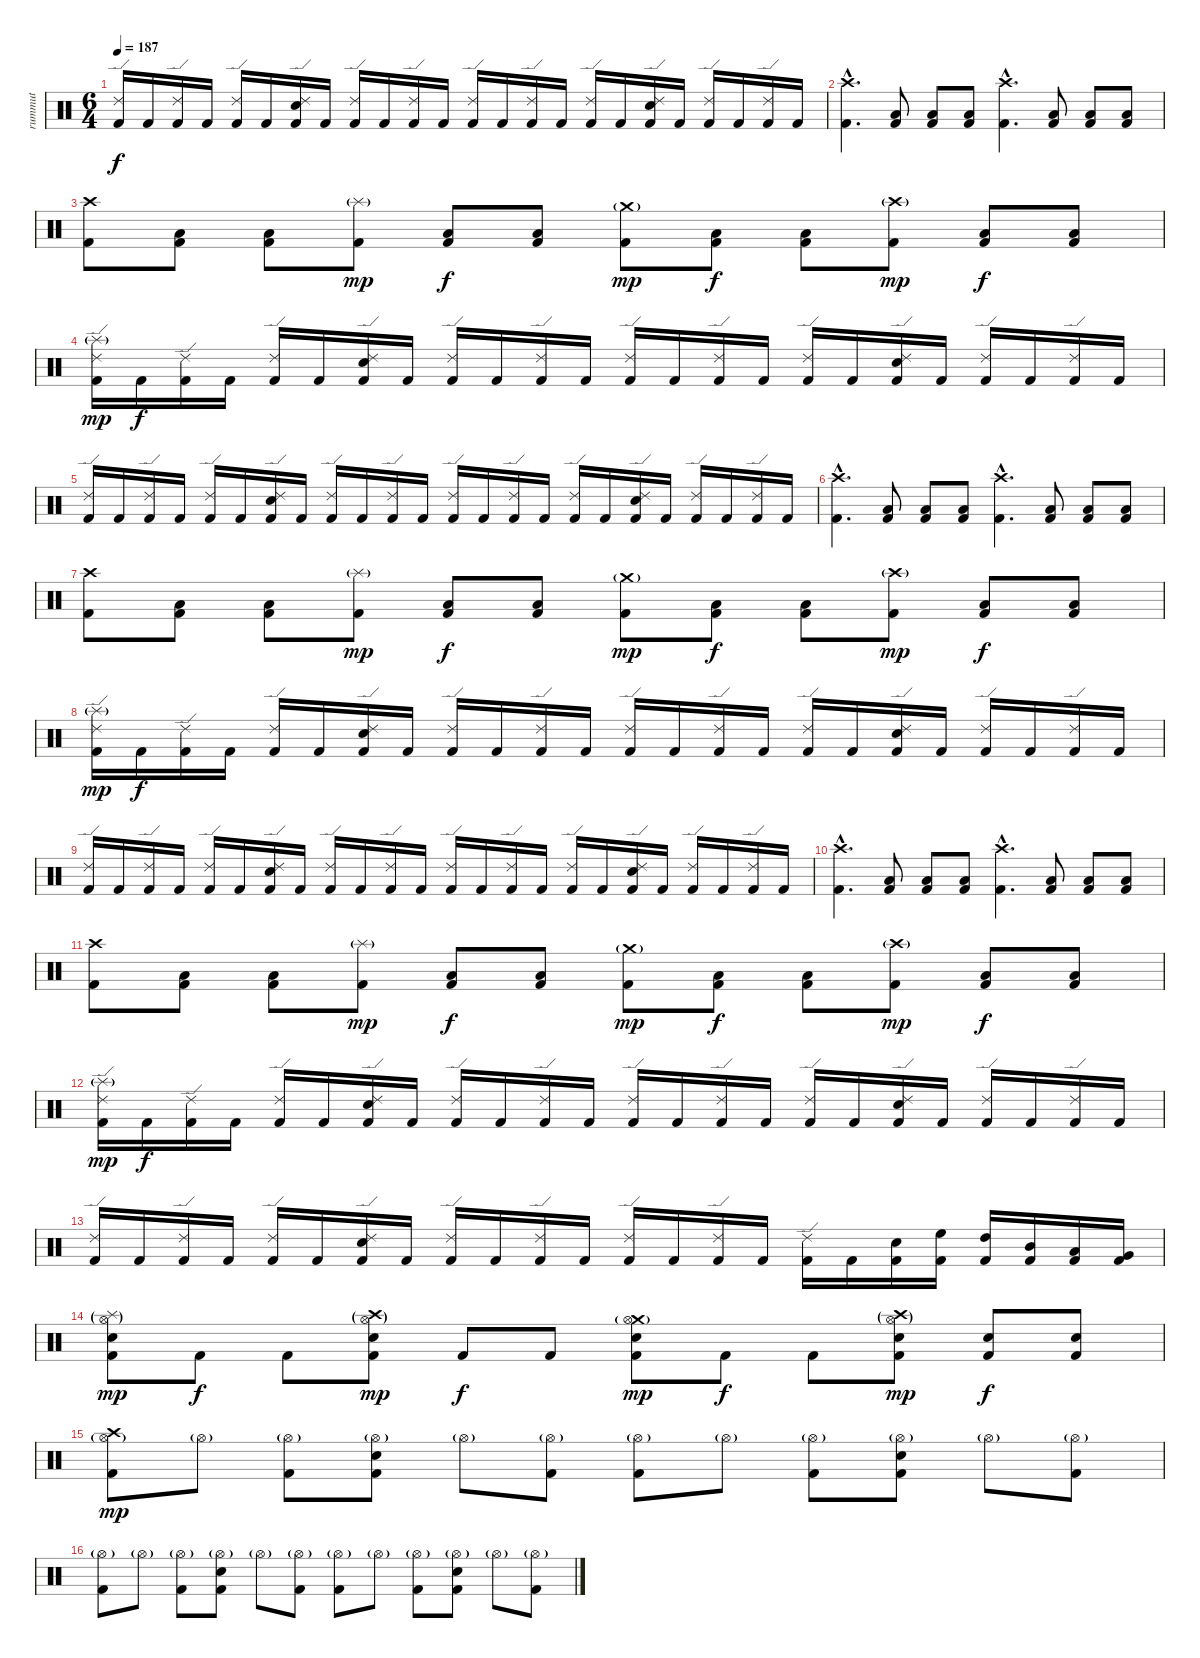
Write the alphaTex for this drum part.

\track ("rummut" "rummut") {instrument percussion}
\staff {score}
\articulation defaults
\ts (6 4)
\tempo 187
\clef neutral
\ks c
("Kick (hit) 2" "Ride (edge) 2").16{dy f} "Kick (hit) 2".16 ("Kick (hit) 2" "Ride (edge) 2").16 "Kick (hit) 2".16 ("Kick (hit) 2" "Ride (edge) 2").16 "Kick (hit) 2".16 ("Kick (hit) 2" "Ride (edge) 2" "Snare (hit) 2").16 "Kick (hit) 2".16 ("Kick (hit) 2" "Ride (edge) 2").16 "Kick (hit) 2".16 ("Kick (hit) 2" "Ride (edge) 2").16 "Kick (hit) 2".16 ("Kick (hit) 2" "Ride (edge) 2").16 "Kick (hit) 2".16 ("Kick (hit) 2" "Ride (edge) 2").16 "Kick (hit) 2".16 ("Kick (hit) 2" "Ride (edge) 2").16 "Kick (hit) 2".16 ("Kick (hit) 2" "Ride (edge) 2" "Snare (hit) 2").16 "Kick (hit) 2".16 ("Kick (hit) 2" "Ride (edge) 2").16 "Kick (hit) 2".16 ("Kick (hit) 2" "Ride (edge) 2").16 "Kick (hit) 2".16 |
("Kick (hit) 2"{hac} "Crash high (hit)"{hac}).4{d} ("Kick (hit) 2" "Low Tom (hit)").8 ("Kick (hit) 2" "Low Tom (hit)").8 ("Kick (hit) 2" "Low Tom (hit)").8 ("Kick (hit) 2"{hac} "Crash high (hit)"{hac}).4{d} ("Kick (hit) 2" "Low Tom (hit)").8 ("Kick (hit) 2" "Low Tom (hit)").8 ("Kick (hit) 2" "Low Tom (hit)").8 |
("Kick (hit) 2" "Crash high (hit)").8 ("Kick (hit) 2" "Low Tom (hit)").8 ("Kick (hit) 2" "Low Tom (hit)").8 ("Kick (hit) 2" "Splash (hit)"{g}).8{dy mp} ("Kick (hit) 2" "Low Tom (hit)").8{dy f} ("Kick (hit) 2" "Low Tom (hit)").8 ("Kick (hit) 2" "Crash medium (hit)"{g}).8{dy mp} ("Kick (hit) 2" "Low Tom (hit)").8{dy f} ("Kick (hit) 2" "Low Tom (hit)").8 ("Kick (hit) 2" "Crash high (hit)"{g}).8{dy mp} ("Kick (hit) 2" "Low Tom (hit)").8{dy f} ("Kick (hit) 2" "Low Tom (hit)").8 |
("Kick (hit) 2" "Ride (edge) 2" "Splash (hit)"{g}).16{dy mp} "Kick (hit) 2".16{dy f} ("Kick (hit) 2" "Ride (edge) 2").16 "Kick (hit) 2".16 ("Kick (hit) 2" "Ride (edge) 2").16 "Kick (hit) 2".16 ("Kick (hit) 2" "Ride (edge) 2" "Snare (hit) 2").16 "Kick (hit) 2".16 ("Kick (hit) 2" "Ride (edge) 2").16 "Kick (hit) 2".16 ("Kick (hit) 2" "Ride (edge) 2").16 "Kick (hit) 2".16 ("Kick (hit) 2" "Ride (edge) 2").16 "Kick (hit) 2".16 ("Kick (hit) 2" "Ride (edge) 2").16 "Kick (hit) 2".16 ("Kick (hit) 2" "Ride (edge) 2").16 "Kick (hit) 2".16 ("Kick (hit) 2" "Ride (edge) 2" "Snare (hit) 2").16 "Kick (hit) 2".16 ("Kick (hit) 2" "Ride (edge) 2").16 "Kick (hit) 2".16 ("Kick (hit) 2" "Ride (edge) 2").16 "Kick (hit) 2".16 |
("Kick (hit) 2" "Ride (edge) 2").16 "Kick (hit) 2".16 ("Kick (hit) 2" "Ride (edge) 2").16 "Kick (hit) 2".16 ("Kick (hit) 2" "Ride (edge) 2").16 "Kick (hit) 2".16 ("Kick (hit) 2" "Ride (edge) 2" "Snare (hit) 2").16 "Kick (hit) 2".16 ("Kick (hit) 2" "Ride (edge) 2").16 "Kick (hit) 2".16 ("Kick (hit) 2" "Ride (edge) 2").16 "Kick (hit) 2".16 ("Kick (hit) 2" "Ride (edge) 2").16 "Kick (hit) 2".16 ("Kick (hit) 2" "Ride (edge) 2").16 "Kick (hit) 2".16 ("Kick (hit) 2" "Ride (edge) 2").16 "Kick (hit) 2".16 ("Kick (hit) 2" "Ride (edge) 2" "Snare (hit) 2").16 "Kick (hit) 2".16 ("Kick (hit) 2" "Ride (edge) 2").16 "Kick (hit) 2".16 ("Kick (hit) 2" "Ride (edge) 2").16 "Kick (hit) 2".16 |
("Kick (hit) 2"{hac} "Crash high (hit)"{hac}).4{d} ("Kick (hit) 2" "Low Tom (hit)").8 ("Kick (hit) 2" "Low Tom (hit)").8 ("Kick (hit) 2" "Low Tom (hit)").8 ("Kick (hit) 2"{hac} "Crash high (hit)"{hac}).4{d} ("Kick (hit) 2" "Low Tom (hit)").8 ("Kick (hit) 2" "Low Tom (hit)").8 ("Kick (hit) 2" "Low Tom (hit)").8 |
("Kick (hit) 2" "Crash high (hit)").8 ("Kick (hit) 2" "Low Tom (hit)").8 ("Kick (hit) 2" "Low Tom (hit)").8 ("Kick (hit) 2" "Splash (hit)"{g}).8{dy mp} ("Kick (hit) 2" "Low Tom (hit)").8{dy f} ("Kick (hit) 2" "Low Tom (hit)").8 ("Kick (hit) 2" "Crash medium (hit)"{g}).8{dy mp} ("Kick (hit) 2" "Low Tom (hit)").8{dy f} ("Kick (hit) 2" "Low Tom (hit)").8 ("Kick (hit) 2" "Crash high (hit)"{g}).8{dy mp} ("Kick (hit) 2" "Low Tom (hit)").8{dy f} ("Kick (hit) 2" "Low Tom (hit)").8 |
("Kick (hit) 2" "Ride (edge) 2" "Splash (hit)"{g}).16{dy mp} "Kick (hit) 2".16{dy f} ("Kick (hit) 2" "Ride (edge) 2").16 "Kick (hit) 2".16 ("Kick (hit) 2" "Ride (edge) 2").16 "Kick (hit) 2".16 ("Kick (hit) 2" "Ride (edge) 2" "Snare (hit) 2").16 "Kick (hit) 2".16 ("Kick (hit) 2" "Ride (edge) 2").16 "Kick (hit) 2".16 ("Kick (hit) 2" "Ride (edge) 2").16 "Kick (hit) 2".16 ("Kick (hit) 2" "Ride (edge) 2").16 "Kick (hit) 2".16 ("Kick (hit) 2" "Ride (edge) 2").16 "Kick (hit) 2".16 ("Kick (hit) 2" "Ride (edge) 2").16 "Kick (hit) 2".16 ("Kick (hit) 2" "Ride (edge) 2" "Snare (hit) 2").16 "Kick (hit) 2".16 ("Kick (hit) 2" "Ride (edge) 2").16 "Kick (hit) 2".16 ("Kick (hit) 2" "Ride (edge) 2").16 "Kick (hit) 2".16 |
("Kick (hit) 2" "Ride (edge) 2").16 "Kick (hit) 2".16 ("Kick (hit) 2" "Ride (edge) 2").16 "Kick (hit) 2".16 ("Kick (hit) 2" "Ride (edge) 2").16 "Kick (hit) 2".16 ("Kick (hit) 2" "Ride (edge) 2" "Snare (hit) 2").16 "Kick (hit) 2".16 ("Kick (hit) 2" "Ride (edge) 2").16 "Kick (hit) 2".16 ("Kick (hit) 2" "Ride (edge) 2").16 "Kick (hit) 2".16 ("Kick (hit) 2" "Ride (edge) 2").16 "Kick (hit) 2".16 ("Kick (hit) 2" "Ride (edge) 2").16 "Kick (hit) 2".16 ("Kick (hit) 2" "Ride (edge) 2").16 "Kick (hit) 2".16 ("Kick (hit) 2" "Ride (edge) 2" "Snare (hit) 2").16 "Kick (hit) 2".16 ("Kick (hit) 2" "Ride (edge) 2").16 "Kick (hit) 2".16 ("Kick (hit) 2" "Ride (edge) 2").16 "Kick (hit) 2".16 |
("Kick (hit) 2"{hac} "Crash high (hit)"{hac}).4{d} ("Kick (hit) 2" "Low Tom (hit)").8 ("Kick (hit) 2" "Low Tom (hit)").8 ("Kick (hit) 2" "Low Tom (hit)").8 ("Kick (hit) 2"{hac} "Crash high (hit)"{hac}).4{d} ("Kick (hit) 2" "Low Tom (hit)").8 ("Kick (hit) 2" "Low Tom (hit)").8 ("Kick (hit) 2" "Low Tom (hit)").8 |
("Kick (hit) 2" "Crash high (hit)").8 ("Kick (hit) 2" "Low Tom (hit)").8 ("Kick (hit) 2" "Low Tom (hit)").8 ("Kick (hit) 2" "Splash (hit)"{g}).8{dy mp} ("Kick (hit) 2" "Low Tom (hit)").8{dy f} ("Kick (hit) 2" "Low Tom (hit)").8 ("Kick (hit) 2" "Crash medium (hit)"{g}).8{dy mp} ("Kick (hit) 2" "Low Tom (hit)").8{dy f} ("Kick (hit) 2" "Low Tom (hit)").8 ("Kick (hit) 2" "Crash high (hit)"{g}).8{dy mp} ("Kick (hit) 2" "Low Tom (hit)").8{dy f} ("Kick (hit) 2" "Low Tom (hit)").8 |
("Kick (hit) 2" "Ride (edge) 2" "Splash (hit)"{g}).16{dy mp} "Kick (hit) 2".16{dy f} ("Kick (hit) 2" "Ride (edge) 2").16 "Kick (hit) 2".16 ("Kick (hit) 2" "Ride (edge) 2").16 "Kick (hit) 2".16 ("Kick (hit) 2" "Ride (edge) 2" "Snare (hit) 2").16 "Kick (hit) 2".16 ("Kick (hit) 2" "Ride (edge) 2").16 "Kick (hit) 2".16 ("Kick (hit) 2" "Ride (edge) 2").16 "Kick (hit) 2".16 ("Kick (hit) 2" "Ride (edge) 2").16 "Kick (hit) 2".16 ("Kick (hit) 2" "Ride (edge) 2").16 "Kick (hit) 2".16 ("Kick (hit) 2" "Ride (edge) 2").16 "Kick (hit) 2".16 ("Kick (hit) 2" "Ride (edge) 2" "Snare (hit) 2").16 "Kick (hit) 2".16 ("Kick (hit) 2" "Ride (edge) 2").16 "Kick (hit) 2".16 ("Kick (hit) 2" "Ride (edge) 2").16 "Kick (hit) 2".16 |
("Kick (hit) 2" "Ride (edge) 2").16 "Kick (hit) 2".16 ("Kick (hit) 2" "Ride (edge) 2").16 "Kick (hit) 2".16 ("Kick (hit) 2" "Ride (edge) 2").16 "Kick (hit) 2".16 ("Kick (hit) 2" "Ride (edge) 2" "Snare (hit) 2").16 "Kick (hit) 2".16 ("Kick (hit) 2" "Ride (edge) 2").16 "Kick (hit) 2".16 ("Kick (hit) 2" "Ride (edge) 2").16 "Kick (hit) 2".16 ("Kick (hit) 2" "Ride (edge) 2").16 "Kick (hit) 2".16 ("Kick (hit) 2" "Ride (edge) 2").16 "Kick (hit) 2".16 ("Kick (hit) 2" "Ride (edge) 2").16 "Kick (hit) 2".16 ("Kick (hit) 2" "Snare (hit) 2").16 ("Kick (hit) 2" "High Floor Tom (hit)").16 ("Kick (hit) 2" "High Tom (hit)").16 ("Kick (hit) 2" "Mid Tom (hit)").16 ("Kick (hit) 2" "Low Tom (hit)").16 ("Kick (hit) 2" "Very Low Tom (hit)").16 |
("Kick (hit) 2" "Snare (hit) 2" "Splash (hit)"{g} "Hi-Hat (open)"{g}).8{dy mp} "Kick (hit) 2".8{dy f} "Kick (hit) 2".8 ("Kick (hit) 2" "Snare (hit) 2" "Crash high (hit)"{g} "Hi-Hat (open)"{g}).8{dy mp} "Kick (hit) 2".8{dy f} "Kick (hit) 2".8 ("Kick (hit) 2" "Snare (hit) 2" "Crash medium (hit)"{g} "Hi-Hat (open)"{g}).8{dy mp} "Kick (hit) 2".8{dy f} "Kick (hit) 2".8 ("Kick (hit) 2" "Snare (hit) 2" "Crash high (hit)"{g} "Hi-Hat (open)"{g}).8{dy mp} ("Kick (hit) 2" "Snare (hit) 2").8{dy f} ("Kick (hit) 2" "Snare (hit) 2").8 |
("Kick (hit) 2" "Hi-Hat (open)"{g} "Crash high (hit)").8{dy mp} "Hi-Hat (open)"{g}.8 ("Kick (hit) 2" "Hi-Hat (open)"{g}).8 ("Kick (hit) 2" "Hi-Hat (open)"{g} "Snare (hit) 2").8 "Hi-Hat (open)"{g}.8 ("Kick (hit) 2" "Hi-Hat (open)"{g}).8 ("Kick (hit) 2" "Hi-Hat (open)"{g}).8 "Hi-Hat (open)"{g}.8 ("Kick (hit) 2" "Hi-Hat (open)"{g}).8 ("Kick (hit) 2" "Hi-Hat (open)"{g} "Snare (hit) 2").8 "Hi-Hat (open)"{g}.8 ("Kick (hit) 2" "Hi-Hat (open)"{g}).8 |
("Kick (hit) 2" "Hi-Hat (open)"{g}).8 "Hi-Hat (open)"{g}.8 ("Kick (hit) 2" "Hi-Hat (open)"{g}).8 ("Kick (hit) 2" "Hi-Hat (open)"{g} "Snare (hit) 2").8 "Hi-Hat (open)"{g}.8 ("Kick (hit) 2" "Hi-Hat (open)"{g}).8 ("Kick (hit) 2" "Hi-Hat (open)"{g}).8 "Hi-Hat (open)"{g}.8 ("Kick (hit) 2" "Hi-Hat (open)"{g}).8 ("Kick (hit) 2" "Hi-Hat (open)"{g} "Snare (hit) 2").8 "Hi-Hat (open)"{g}.8 ("Kick (hit) 2" "Hi-Hat (open)"{g}).8
